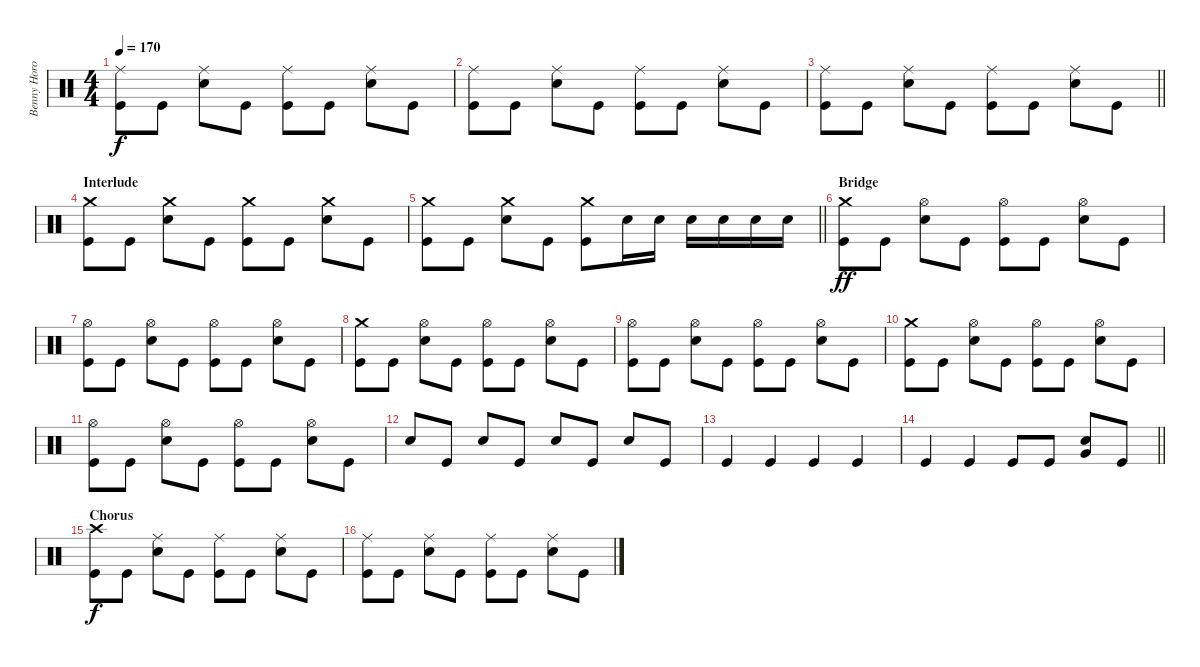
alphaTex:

\track ("Benny Horowitz" "Benny Horo") {instrument percussion}
\staff {score}
\articulation defaults
\ts (4 4)
\tempo 170
\clef neutral
\ks c
("Kick (hit)" "Ride (middle)").8{dy f} "Kick (hit)".8 ("Snare (hit) 2" "Ride (middle)").8 "Kick (hit)".8 ("Kick (hit)" "Ride (middle)").8 "Kick (hit)".8 ("Snare (hit) 2" "Ride (middle)").8 "Kick (hit)".8 |
("Kick (hit)" "Ride (middle)").8 "Kick (hit)".8 ("Snare (hit) 2" "Ride (middle)").8 "Kick (hit)".8 ("Kick (hit)" "Ride (middle)").8 "Kick (hit)".8 ("Snare (hit) 2" "Ride (middle)").8 "Kick (hit)".8 |
\barLineRight lightlight
("Kick (hit)" "Ride (middle)").8 "Kick (hit)".8 ("Snare (hit) 2" "Ride (middle)").8 "Kick (hit)".8 ("Kick (hit)" "Ride (middle)").8 "Kick (hit)".8 ("Snare (hit) 2" "Ride (middle)").8 "Kick (hit)".8 |
\section ("" "Interlude")
("Kick (hit)" "Crash medium (hit)").8 "Kick (hit)".8 ("Snare (hit) 2" "Crash medium (hit)").8 "Kick (hit)".8 ("Kick (hit)" "Crash medium (hit)").8 "Kick (hit)".8 ("Snare (hit) 2" "Crash medium (hit)").8 "Kick (hit)".8 |
\barLineRight lightlight
("Kick (hit)" "Crash medium (hit)").8 "Kick (hit)".8 ("Snare (hit) 2" "Crash medium (hit)").8 "Kick (hit)".8 ("Kick (hit)" "Crash medium (hit)").8 "Snare (hit) 2".16 "Snare (hit) 2".16 "Snare (hit) 2".16 "Snare (hit) 2".16 "Snare (hit) 2".16 "Snare (hit) 2".16 |
\section ("" "Bridge")
("Crash medium (hit)" "Kick (hit)").8{dy ff} "Kick (hit)".8 ("Snare (hit) 2" "Hi-Hat (open)").8 "Kick (hit)".8 ("Kick (hit)" "Hi-Hat (open)").8 "Kick (hit)".8 ("Snare (hit) 2" "Hi-Hat (open)").8 "Kick (hit)".8 |
("Kick (hit)" "Hi-Hat (open)").8 "Kick (hit)".8 ("Snare (hit) 2" "Hi-Hat (open)").8 "Kick (hit)".8 ("Kick (hit)" "Hi-Hat (open)").8 "Kick (hit)".8 ("Snare (hit) 2" "Hi-Hat (open)").8 "Kick (hit)".8 |
("Crash medium (hit)" "Kick (hit)").8 "Kick (hit)".8 ("Snare (hit) 2" "Hi-Hat (open)").8 "Kick (hit)".8 ("Kick (hit)" "Hi-Hat (open)").8 "Kick (hit)".8 ("Snare (hit) 2" "Hi-Hat (open)").8 "Kick (hit)".8 |
("Kick (hit)" "Hi-Hat (open)").8 "Kick (hit)".8 ("Snare (hit) 2" "Hi-Hat (open)").8 "Kick (hit)".8 ("Kick (hit)" "Hi-Hat (open)").8 "Kick (hit)".8 ("Snare (hit) 2" "Hi-Hat (open)").8 "Kick (hit)".8 |
("Crash medium (hit)" "Kick (hit)").8 "Kick (hit)".8 ("Snare (hit) 2" "Hi-Hat (open)").8 "Kick (hit)".8 ("Kick (hit)" "Hi-Hat (open)").8 "Kick (hit)".8 ("Snare (hit) 2" "Hi-Hat (open)").8 "Kick (hit)".8 |
("Kick (hit)" "Hi-Hat (open)").8 "Kick (hit)".8 ("Snare (hit) 2" "Hi-Hat (open)").8 "Kick (hit)".8 ("Kick (hit)" "Hi-Hat (open)").8 "Kick (hit)".8 ("Snare (hit) 2" "Hi-Hat (open)").8 "Kick (hit)".8 |
"Snare (hit) 2".8 "Kick (hit)".8 "Snare (hit) 2".8 "Kick (hit)".8 "Snare (hit) 2".8 "Kick (hit)".8 "Snare (hit) 2".8 "Kick (hit)".8 |
"Kick (hit)".4 "Kick (hit)".4 "Kick (hit)".4 "Kick (hit)".4 |
\barLineRight lightlight "Kick (hit)".4 "Kick (hit)".4 "Kick (hit)".8 "Kick (hit)".8
("Snare (hit) 2" "Very Low Tom (hit)").8 "Kick (hit)".8 |
\section ("" "Chorus")
("Crash high (hit)" "Kick (hit)").8{dy f} "Kick (hit)".8 ("Snare (hit) 2" "Ride (middle)").8 "Kick (hit)".8 ("Kick (hit)" "Ride (middle)").8 "Kick (hit)".8 ("Snare (hit) 2" "Ride (middle)").8 "Kick (hit)".8 |
("Kick (hit)" "Ride (middle)").8 "Kick (hit)".8 ("Snare (hit) 2" "Ride (middle)").8 "Kick (hit)".8 ("Kick (hit)" "Ride (middle)").8 "Kick (hit)".8 ("Snare (hit) 2" "Ride (middle)").8 "Kick (hit)".8
